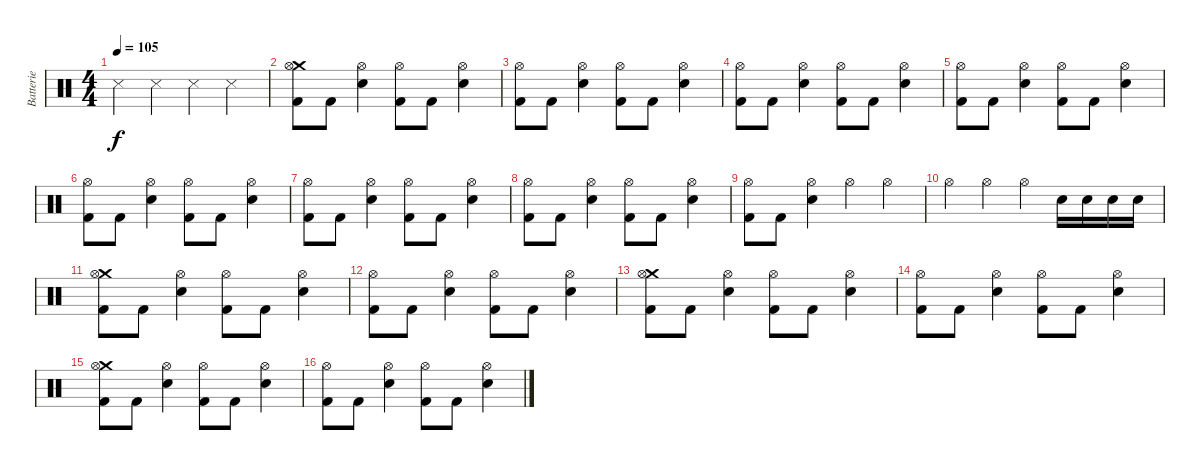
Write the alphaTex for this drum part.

\track ("Batterie" "Batterie") {instrument percussion}
\staff {score}
\articulation defaults
\ts (4 4)
\tempo 105
\clef neutral
\ks c "Snare (side stick) 3".4{dy f} "Snare (side stick) 3".4 "Snare (side stick) 3".4 "Snare (side stick) 3".4
|
("Kick (hit) 2" "Crash medium (hit)" "Hi-Hat (open)").8 "Kick (hit) 2".8 ("Electric Snare (hit)" "Hi-Hat (open)").4 ("Kick (hit) 2" "Hi-Hat (open)").8 "Kick (hit) 2".8 ("Electric Snare (hit)" "Hi-Hat (open)").4 |
("Kick (hit) 2" "Hi-Hat (open)").8 "Kick (hit) 2".8 ("Electric Snare (hit)" "Hi-Hat (open)").4 ("Kick (hit) 2" "Hi-Hat (open)").8 "Kick (hit) 2".8 ("Electric Snare (hit)" "Hi-Hat (open)").4 |
("Kick (hit) 2" "Hi-Hat (open)").8 "Kick (hit) 2".8 ("Electric Snare (hit)" "Hi-Hat (open)").4 ("Kick (hit) 2" "Hi-Hat (open)").8 "Kick (hit) 2".8 ("Electric Snare (hit)" "Hi-Hat (open)").4 |
("Kick (hit) 2" "Hi-Hat (open)").8 "Kick (hit) 2".8 ("Electric Snare (hit)" "Hi-Hat (open)").4 ("Kick (hit) 2" "Hi-Hat (open)").8 "Kick (hit) 2".8 ("Electric Snare (hit)" "Hi-Hat (open)").4 |
("Kick (hit) 2" "Hi-Hat (open)").8 "Kick (hit) 2".8 ("Electric Snare (hit)" "Hi-Hat (open)").4 ("Kick (hit) 2" "Hi-Hat (open)").8 "Kick (hit) 2".8 ("Electric Snare (hit)" "Hi-Hat (open)").4 |
("Kick (hit) 2" "Hi-Hat (open)").8 "Kick (hit) 2".8 ("Electric Snare (hit)" "Hi-Hat (open)").4 ("Kick (hit) 2" "Hi-Hat (open)").8 "Kick (hit) 2".8 ("Electric Snare (hit)" "Hi-Hat (open)").4 |
("Kick (hit) 2" "Hi-Hat (open)").8 "Kick (hit) 2".8 ("Electric Snare (hit)" "Hi-Hat (open)").4 ("Kick (hit) 2" "Hi-Hat (open)").8 "Kick (hit) 2".8 ("Electric Snare (hit)" "Hi-Hat (open)").4 |
("Kick (hit) 2" "Hi-Hat (open)").8 "Kick (hit) 2".8 ("Electric Snare (hit)" "Hi-Hat (open)").4 "Hi-Hat (open)".4 "Hi-Hat (open)".4 |
"Hi-Hat (open)".4 "Hi-Hat (open)".4 "Hi-Hat (open)".4 "Electric Snare (hit)".16 "Electric Snare (hit)".16 "Electric Snare (hit)".16 "Electric Snare (hit)".16 |
("Kick (hit) 2" "Crash medium (hit)" "Hi-Hat (open)").8 "Kick (hit) 2".8 ("Electric Snare (hit)" "Hi-Hat (open)").4 ("Kick (hit) 2" "Hi-Hat (open)").8 "Kick (hit) 2".8 ("Electric Snare (hit)" "Hi-Hat (open)").4 |
("Kick (hit) 2" "Hi-Hat (open)").8 "Kick (hit) 2".8 ("Electric Snare (hit)" "Hi-Hat (open)").4 ("Kick (hit) 2" "Hi-Hat (open)").8 "Kick (hit) 2".8 ("Electric Snare (hit)" "Hi-Hat (open)").4 |
("Kick (hit) 2" "Crash medium (hit)" "Hi-Hat (open)").8 "Kick (hit) 2".8 ("Electric Snare (hit)" "Hi-Hat (open)").4 ("Kick (hit) 2" "Hi-Hat (open)").8 "Kick (hit) 2".8 ("Electric Snare (hit)" "Hi-Hat (open)").4 |
("Kick (hit) 2" "Hi-Hat (open)").8 "Kick (hit) 2".8 ("Electric Snare (hit)" "Hi-Hat (open)").4 ("Kick (hit) 2" "Hi-Hat (open)").8 "Kick (hit) 2".8 ("Electric Snare (hit)" "Hi-Hat (open)").4 |
("Kick (hit) 2" "Crash medium (hit)" "Hi-Hat (open)").8 "Kick (hit) 2".8 ("Electric Snare (hit)" "Hi-Hat (open)").4 ("Kick (hit) 2" "Hi-Hat (open)").8 "Kick (hit) 2".8 ("Electric Snare (hit)" "Hi-Hat (open)").4 |
("Kick (hit) 2" "Hi-Hat (open)").8 "Kick (hit) 2".8 ("Electric Snare (hit)" "Hi-Hat (open)").4 ("Kick (hit) 2" "Hi-Hat (open)").8 "Kick (hit) 2".8 ("Electric Snare (hit)" "Hi-Hat (open)").4
